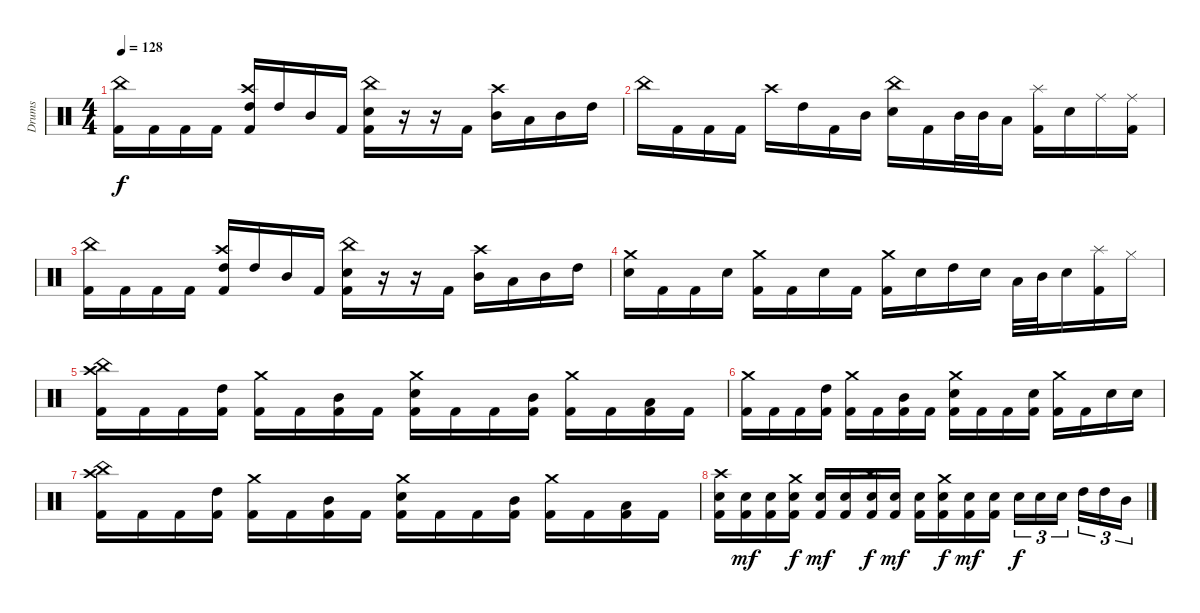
\track ("Drums" "Drums") {instrument percussion}
\staff {score}
\articulation defaults
\ts (4 4)
\tempo 128
\clef neutral
\ks c
("China (hit)" "Kick (hit) 2").16{dy f} "Kick (hit) 2".16 "Kick (hit) 2".16 "Kick (hit) 2".16 ("Crash high (hit)" "High Tom (hit)" "Kick (hit) 2").16 "High Tom (hit)".16 "Mid Tom (hit)".16 "Kick (hit) 2".16 ("China (hit)" "Electric Snare (hit)" "Kick (hit) 2").16 r.16 r.16 "Kick (hit) 2".16 ("Crash high (hit)" "Mid Tom (hit)").16 "Low Tom (hit)".16 "Mid Tom (hit)".16 "High Tom (hit)".16 |
"China (hit)".16 "Kick (hit) 2".16 "Kick (hit) 2".16 "Kick (hit) 2".16 "Crash high (hit)".16 "High Tom (hit)".16 "Kick (hit) 2".16 "Mid Tom (hit)".16 ("China (hit)" "Electric Snare (hit)").16 "Kick (hit) 2".16 "Mid Tom (hit)".32 "Mid Tom (hit)".32 "Low Tom (hit)".16 ("Splash (hit)" "Kick (hit) 2").16 "Electric Snare (hit)".16 "Ride (middle)".16 ("Ride (middle)" "Kick (hit) 2").16 |
("China (hit)" "Kick (hit) 2").16 "Kick (hit) 2".16 "Kick (hit) 2".16 "Kick (hit) 2".16 ("Crash high (hit)" "High Tom (hit)" "Kick (hit) 2").16 "High Tom (hit)".16 "Mid Tom (hit)".16 "Kick (hit) 2".16 ("China (hit)" "Electric Snare (hit)" "Kick (hit) 2").16 r.16 r.16 "Kick (hit) 2".16 ("Crash high (hit)" "Mid Tom (hit)").16 "Low Tom (hit)".16 "Mid Tom (hit)".16 "High Tom (hit)".16 |
("Crash medium (hit)" "Electric Snare (hit)").16 "Kick (hit) 2".16 "Kick (hit) 2".16 "Electric Snare (hit)".16 ("Crash medium (hit)" "Kick (hit) 2").16 "Kick (hit) 2".16 "Electric Snare (hit)".16 "Kick (hit) 2".16 ("Crash medium (hit)" "Kick (hit) 2").16 "Electric Snare (hit)".16 "High Tom (hit)".16 "Electric Snare (hit)".16 "Low Tom (hit)".32 "Mid Tom (hit)".32 "Electric Snare (hit)".16 ("Splash (hit)" "Kick (hit) 2").16 "Hi-Hat (closed)".16 |
("Crash high (hit)" "China (hit)" "Kick (hit) 2").16 "Kick (hit) 2".16 "Kick (hit) 2".16 ("High Tom (hit)" "Kick (hit) 2").16 ("Crash medium (hit)" "Kick (hit) 2").16 "Kick (hit) 2".16 ("Mid Tom (hit)" "Kick (hit) 2").16 "Kick (hit) 2".16 ("Crash medium (hit)" "Electric Snare (hit)" "Kick (hit) 2").16 "Kick (hit) 2".16 "Kick (hit) 2".16 ("Mid Tom (hit)" "Kick (hit) 2").16 ("Crash medium (hit)" "Kick (hit) 2").16 "Kick (hit) 2".16 ("Low Tom (hit)" "Kick (hit) 2").16 "Kick (hit) 2".16 |
("Crash medium (hit)" "Kick (hit) 2").16 "Kick (hit) 2".16 "Kick (hit) 2".16 ("High Tom (hit)" "Kick (hit) 2").16 ("Crash medium (hit)" "Kick (hit) 2").16 "Kick (hit) 2".16 ("Mid Tom (hit)" "Kick (hit) 2").16 "Kick (hit) 2".16 ("Crash medium (hit)" "Electric Snare (hit)" "Kick (hit) 2").16 "Kick (hit) 2".16 "Kick (hit) 2".16 ("Electric Snare (hit)" "Kick (hit) 2").16 ("Crash medium (hit)" "Kick (hit) 2").16 "Kick (hit) 2".16 "Electric Snare (hit)".16 "Electric Snare (hit)".16 |
("Crash high (hit)" "China (hit)" "Kick (hit) 2").16 "Kick (hit) 2".16 "Kick (hit) 2".16 ("High Tom (hit)" "Kick (hit) 2").16 ("Crash medium (hit)" "Kick (hit) 2").16 "Kick (hit) 2".16 ("Mid Tom (hit)" "Kick (hit) 2").16 "Kick (hit) 2".16 ("Crash medium (hit)" "Electric Snare (hit)" "Kick (hit) 2").16 "Kick (hit) 2".16 "Kick (hit) 2".16 ("Mid Tom (hit)" "Kick (hit) 2").16 ("Crash medium (hit)" "Kick (hit) 2").16 "Kick (hit) 2".16 ("Low Tom (hit)" "Kick (hit) 2").16 "Kick (hit) 2".16 |
("Crash high (hit)" "Electric Snare (hit)" "Kick (hit) 2").16 ("Electric Snare (hit)" "Kick (hit) 2").16{dy mf} ("Electric Snare (hit)" "Kick (hit) 2").16 ("Crash medium (hit)" "Electric Snare (hit)" "Kick (hit) 2").16{dy f} ("Electric Snare (hit)" "Kick (hit) 2").16{dy mf} ("Electric Snare (hit)" "Kick (hit) 2").16 ("Crash high (hit)" "Electric Snare (hit)" "Kick (hit) 2").16{dy f} ("Electric Snare (hit)" "Kick (hit) 2").16{dy mf} ("Electric Snare (hit)" "Kick (hit) 2").16 ("Crash medium (hit)" "Electric Snare (hit)" "Kick (hit) 2").16{dy f} ("Electric Snare (hit)" "Kick (hit) 2").16{dy mf} ("Electric Snare (hit)" "Kick (hit) 2").16 "Electric Snare (hit)".16{tu (3 2) dy f} "Electric Snare (hit)".16{tu (3 2)} "Electric Snare (hit)".16{tu (3 2)} "High Tom (hit)".16{tu (3 2)} "High Tom (hit)".16{tu (3 2)} "Mid Tom (hit)".16{tu (3 2)}
